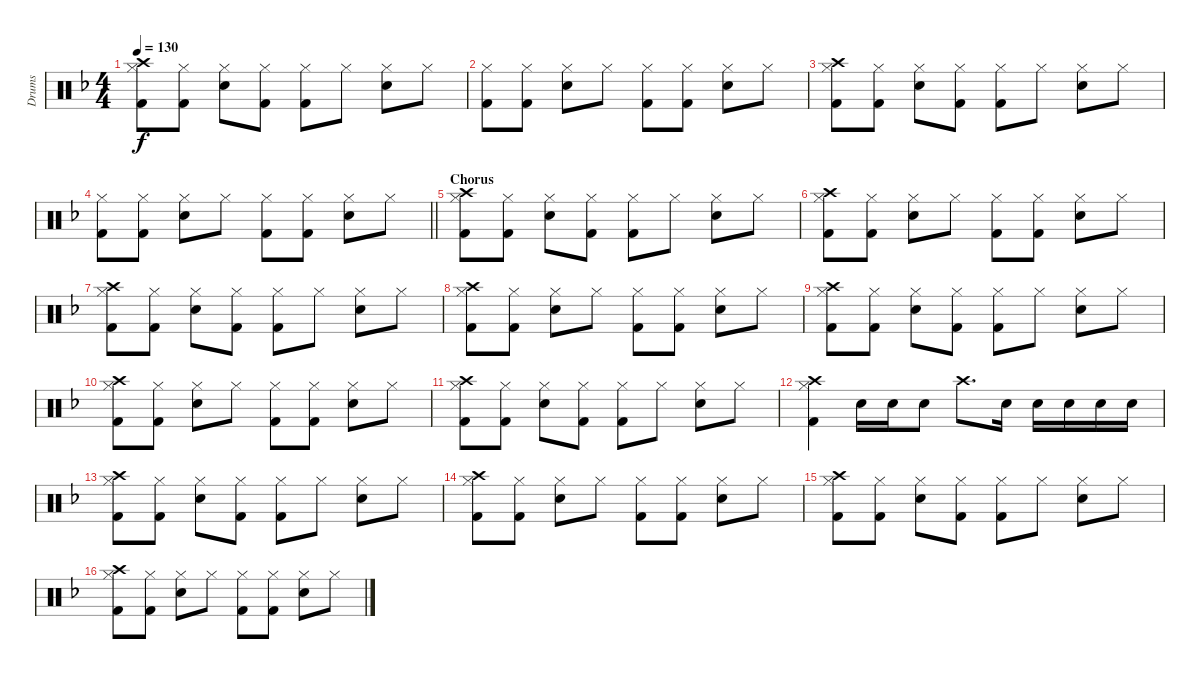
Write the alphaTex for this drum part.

\track ("Drums" "Drums") {instrument percussion}
\staff {score}
\articulation defaults
\ts (4 4)
\tempo 130
\clef neutral
\ks dminor
("Hi-Hat (closed)" "Kick (hit) 2" "Crash high (hit)").8{dy f} ("Hi-Hat (closed)" "Kick (hit) 2").8 ("Hi-Hat (closed)" "Snare (hit) 2").8 ("Hi-Hat (closed)" "Kick (hit) 2").8 ("Hi-Hat (closed)" "Kick (hit) 2").8 "Hi-Hat (closed)".8 ("Hi-Hat (closed)" "Snare (hit) 2").8 "Hi-Hat (closed)".8 |
("Hi-Hat (closed)" "Kick (hit) 2").8 ("Hi-Hat (closed)" "Kick (hit) 2").8 ("Hi-Hat (closed)" "Snare (hit) 2").8 "Hi-Hat (closed)".8 ("Hi-Hat (closed)" "Kick (hit) 2").8 ("Hi-Hat (closed)" "Kick (hit) 2").8 ("Hi-Hat (closed)" "Snare (hit) 2").8 "Hi-Hat (closed)".8 |
("Hi-Hat (closed)" "Kick (hit) 2" "Crash high (hit)").8 ("Hi-Hat (closed)" "Kick (hit) 2").8 ("Hi-Hat (closed)" "Snare (hit) 2").8 ("Hi-Hat (closed)" "Kick (hit) 2").8 ("Hi-Hat (closed)" "Kick (hit) 2").8 "Hi-Hat (closed)".8 ("Hi-Hat (closed)" "Snare (hit) 2").8 "Hi-Hat (closed)".8 |
\barLineRight lightlight
("Hi-Hat (closed)" "Kick (hit) 2").8 ("Hi-Hat (closed)" "Kick (hit) 2").8 ("Hi-Hat (closed)" "Snare (hit) 2").8 "Hi-Hat (closed)".8 ("Hi-Hat (closed)" "Kick (hit) 2").8 ("Hi-Hat (closed)" "Kick (hit) 2").8 ("Hi-Hat (closed)" "Snare (hit) 2").8 "Hi-Hat (closed)".8 |
\section ("" "Chorus")
("Hi-Hat (closed)" "Kick (hit) 2" "Crash high (hit)").8 ("Hi-Hat (closed)" "Kick (hit) 2").8 ("Hi-Hat (closed)" "Snare (hit) 2").8 ("Hi-Hat (closed)" "Kick (hit) 2").8 ("Hi-Hat (closed)" "Kick (hit) 2").8 "Hi-Hat (closed)".8 ("Hi-Hat (closed)" "Snare (hit) 2").8 "Hi-Hat (closed)".8 |
("Hi-Hat (closed)" "Kick (hit) 2" "Crash high (hit)").8 ("Hi-Hat (closed)" "Kick (hit) 2").8 ("Hi-Hat (closed)" "Snare (hit) 2").8 "Hi-Hat (closed)".8 ("Hi-Hat (closed)" "Kick (hit) 2").8 ("Hi-Hat (closed)" "Kick (hit) 2").8 ("Hi-Hat (closed)" "Snare (hit) 2").8 "Hi-Hat (closed)".8 |
("Hi-Hat (closed)" "Kick (hit) 2" "Crash high (hit)").8 ("Hi-Hat (closed)" "Kick (hit) 2").8 ("Hi-Hat (closed)" "Snare (hit) 2").8 ("Hi-Hat (closed)" "Kick (hit) 2").8 ("Hi-Hat (closed)" "Kick (hit) 2").8 "Hi-Hat (closed)".8 ("Hi-Hat (closed)" "Snare (hit) 2").8 "Hi-Hat (closed)".8 |
("Hi-Hat (closed)" "Kick (hit) 2" "Crash high (hit)").8 ("Hi-Hat (closed)" "Kick (hit) 2").8 ("Hi-Hat (closed)" "Snare (hit) 2").8 "Hi-Hat (closed)".8 ("Hi-Hat (closed)" "Kick (hit) 2").8 ("Hi-Hat (closed)" "Kick (hit) 2").8 ("Hi-Hat (closed)" "Snare (hit) 2").8 "Hi-Hat (closed)".8 |
("Hi-Hat (closed)" "Kick (hit) 2" "Crash high (hit)").8 ("Hi-Hat (closed)" "Kick (hit) 2").8 ("Hi-Hat (closed)" "Snare (hit) 2").8 ("Hi-Hat (closed)" "Kick (hit) 2").8 ("Hi-Hat (closed)" "Kick (hit) 2").8 "Hi-Hat (closed)".8 ("Hi-Hat (closed)" "Snare (hit) 2").8 "Hi-Hat (closed)".8 |
("Hi-Hat (closed)" "Kick (hit) 2" "Crash high (hit)").8 ("Hi-Hat (closed)" "Kick (hit) 2").8 ("Hi-Hat (closed)" "Snare (hit) 2").8 "Hi-Hat (closed)".8 ("Hi-Hat (closed)" "Kick (hit) 2").8 ("Hi-Hat (closed)" "Kick (hit) 2").8 ("Hi-Hat (closed)" "Snare (hit) 2").8 "Hi-Hat (closed)".8 |
("Hi-Hat (closed)" "Kick (hit) 2" "Crash high (hit)").8 ("Hi-Hat (closed)" "Kick (hit) 2").8 ("Hi-Hat (closed)" "Snare (hit) 2").8 ("Hi-Hat (closed)" "Kick (hit) 2").8 ("Hi-Hat (closed)" "Kick (hit) 2").8 "Hi-Hat (closed)".8 ("Hi-Hat (closed)" "Snare (hit) 2").8 "Hi-Hat (closed)".8 |
("Hi-Hat (closed)" "Kick (hit) 2" "Crash high (hit)").4 "Snare (hit) 2".16 "Snare (hit) 2".16 "Snare (hit) 2".8 "Crash high (hit)".8{d} "Snare (hit) 2".16 "Snare (hit) 2".16 "Snare (hit) 2".16 "Snare (hit) 2".16 "Snare (hit) 2".16 |
("Hi-Hat (closed)" "Kick (hit) 2" "Crash high (hit)").8 ("Hi-Hat (closed)" "Kick (hit) 2").8 ("Hi-Hat (closed)" "Snare (hit) 2").8 ("Hi-Hat (closed)" "Kick (hit) 2").8 ("Hi-Hat (closed)" "Kick (hit) 2").8 "Hi-Hat (closed)".8 ("Hi-Hat (closed)" "Snare (hit) 2").8 "Hi-Hat (closed)".8 |
("Hi-Hat (closed)" "Kick (hit) 2" "Crash high (hit)").8 ("Hi-Hat (closed)" "Kick (hit) 2").8 ("Hi-Hat (closed)" "Snare (hit) 2").8 "Hi-Hat (closed)".8 ("Hi-Hat (closed)" "Kick (hit) 2").8 ("Hi-Hat (closed)" "Kick (hit) 2").8 ("Hi-Hat (closed)" "Snare (hit) 2").8 "Hi-Hat (closed)".8 |
("Hi-Hat (closed)" "Kick (hit) 2" "Crash high (hit)").8 ("Hi-Hat (closed)" "Kick (hit) 2").8 ("Hi-Hat (closed)" "Snare (hit) 2").8 ("Hi-Hat (closed)" "Kick (hit) 2").8 ("Hi-Hat (closed)" "Kick (hit) 2").8 "Hi-Hat (closed)".8 ("Hi-Hat (closed)" "Snare (hit) 2").8 "Hi-Hat (closed)".8 |
("Hi-Hat (closed)" "Kick (hit) 2" "Crash high (hit)").8 ("Hi-Hat (closed)" "Kick (hit) 2").8 ("Hi-Hat (closed)" "Snare (hit) 2").8 "Hi-Hat (closed)".8 ("Hi-Hat (closed)" "Kick (hit) 2").8 ("Hi-Hat (closed)" "Kick (hit) 2").8 ("Hi-Hat (closed)" "Snare (hit) 2").8 "Hi-Hat (closed)".8
